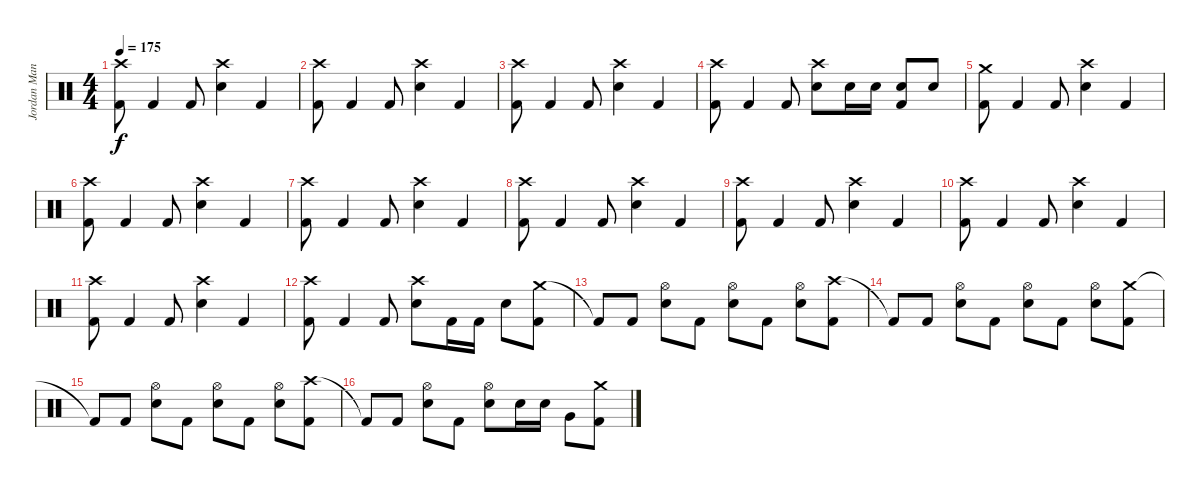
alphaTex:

\track ("Jordan Mancino" "Jordan Man") {instrument percussion}
\staff {score}
\articulation defaults
\ts (4 4)
\tempo 175
\clef neutral
\ks c
("Crash high (hit)" "Kick (hit) 2").8{dy f} "Kick (hit) 2".4 "Kick (hit) 2".8 ("Crash high (hit)" "Electric Snare (hit)").4 "Kick (hit) 2".4 |
("Crash high (hit)" "Kick (hit) 2").8 "Kick (hit) 2".4 "Kick (hit) 2".8 ("Crash high (hit)" "Electric Snare (hit)").4 "Kick (hit) 2".4 |
("Crash high (hit)" "Kick (hit) 2").8 "Kick (hit) 2".4 "Kick (hit) 2".8 ("Crash high (hit)" "Electric Snare (hit)").4 "Kick (hit) 2".4 |
("Crash high (hit)" "Kick (hit) 2").8 "Kick (hit) 2".4 "Kick (hit) 2".8 ("Crash high (hit)" "Electric Snare (hit)").8 "Electric Snare (hit)".16 "Electric Snare (hit)".16 ("Electric Snare (hit)" "Kick (hit) 2").8 "Electric Snare (hit)".8 |
("Crash medium (hit)" "Kick (hit) 2").8 "Kick (hit) 2".4 "Kick (hit) 2".8 ("Crash high (hit)" "Electric Snare (hit)").4 "Kick (hit) 2".4 |
("Crash high (hit)" "Kick (hit) 2").8 "Kick (hit) 2".4 "Kick (hit) 2".8 ("Crash high (hit)" "Electric Snare (hit)").4 "Kick (hit) 2".4 |
("Crash high (hit)" "Kick (hit) 2").8 "Kick (hit) 2".4 "Kick (hit) 2".8 ("Crash high (hit)" "Electric Snare (hit)").4 "Kick (hit) 2".4 |
("Crash high (hit)" "Kick (hit) 2").8 "Kick (hit) 2".4 "Kick (hit) 2".8 ("Crash high (hit)" "Electric Snare (hit)").4 "Kick (hit) 2".4 |
("Crash high (hit)" "Kick (hit) 2").8 "Kick (hit) 2".4 "Kick (hit) 2".8 ("Crash high (hit)" "Electric Snare (hit)").4 "Kick (hit) 2".4 |
("Crash high (hit)" "Kick (hit) 2").8 "Kick (hit) 2".4 "Kick (hit) 2".8 ("Crash high (hit)" "Electric Snare (hit)").4 "Kick (hit) 2".4 |
("Crash high (hit)" "Kick (hit) 2").8 "Kick (hit) 2".4 "Kick (hit) 2".8 ("Crash high (hit)" "Electric Snare (hit)").4 "Kick (hit) 2".4 |
("Crash high (hit)" "Kick (hit) 2").8 "Kick (hit) 2".4 "Kick (hit) 2".8 ("Crash high (hit)" "Electric Snare (hit)").8 "Kick (hit) 2".16 "Kick (hit) 2".16 "Electric Snare (hit)".8 ("Crash medium (hit)" "Kick (hit) 2").8 |
"Kick (hit) 2"{t}.8 "Kick (hit) 2".8 ("Hi-Hat (open)" "Electric Snare (hit)").8 "Kick (hit) 2".8 ("Hi-Hat (open)" "Electric Snare (hit)").8 "Kick (hit) 2".8 ("Hi-Hat (open)" "Electric Snare (hit)").8 ("Crash high (hit)" "Kick (hit) 2").8 |
"Kick (hit) 2"{t}.8 "Kick (hit) 2".8 ("Hi-Hat (open)" "Electric Snare (hit)").8 "Kick (hit) 2".8 ("Hi-Hat (open)" "Electric Snare (hit)").8 "Kick (hit) 2".8 ("Hi-Hat (open)" "Electric Snare (hit)").8 ("Crash medium (hit)" "Kick (hit) 2").8 |
"Kick (hit) 2"{t}.8 "Kick (hit) 2".8 ("Hi-Hat (open)" "Electric Snare (hit)").8 "Kick (hit) 2".8 ("Hi-Hat (open)" "Electric Snare (hit)").8 "Kick (hit) 2".8 ("Hi-Hat (open)" "Electric Snare (hit)").8 ("Crash high (hit)" "Kick (hit) 2").8 |
"Kick (hit) 2"{t}.8 "Kick (hit) 2".8 ("Hi-Hat (open)" "Electric Snare (hit)").8 "Kick (hit) 2".8 ("Hi-Hat (open)" "Electric Snare (hit)").8 "Electric Snare (hit)".16 "Electric Snare (hit)".16 "Very Low Tom (hit)".8 ("Crash medium (hit)" "Kick (hit) 2").8
